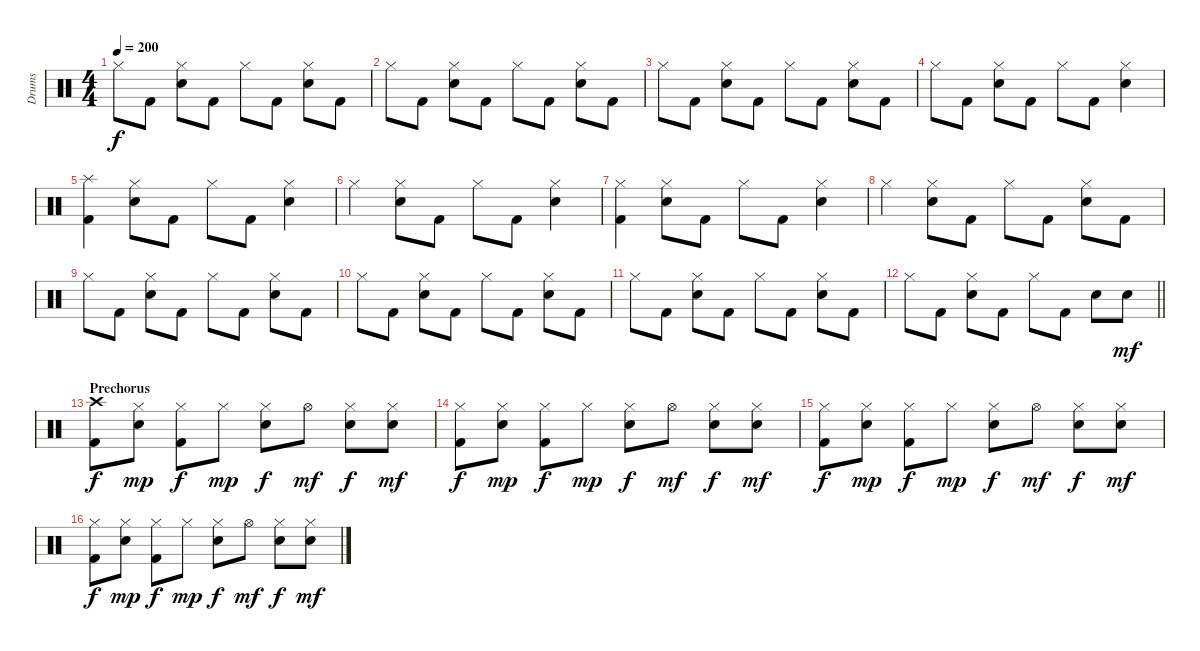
\track ("Drums" "Drums") {instrument percussion}
\staff {score}
\articulation defaults
\ts (4 4)
\tempo 200
\clef neutral
\ks c "Hi-Hat (closed)".8{dy f} "Kick (hit) 2".8
("Hi-Hat (closed)" "Electric Snare (hit)").8 "Kick (hit) 2".8 "Hi-Hat (closed)".8 "Kick (hit) 2".8 ("Hi-Hat (closed)" "Electric Snare (hit)").8 "Kick (hit) 2".8 |
"Hi-Hat (closed)".8 "Kick (hit) 2".8 ("Hi-Hat (closed)" "Electric Snare (hit)").8 "Kick (hit) 2".8 "Hi-Hat (closed)".8 "Kick (hit) 2".8 ("Hi-Hat (closed)" "Electric Snare (hit)").8 "Kick (hit) 2".8 |
"Hi-Hat (closed)".8 "Kick (hit) 2".8 ("Hi-Hat (closed)" "Electric Snare (hit)").8 "Kick (hit) 2".8 "Hi-Hat (closed)".8 "Kick (hit) 2".8 ("Hi-Hat (closed)" "Electric Snare (hit)").8 "Kick (hit) 2".8 |
"Hi-Hat (closed)".8 "Kick (hit) 2".8 ("Hi-Hat (closed)" "Electric Snare (hit)").8 "Kick (hit) 2".8 "Hi-Hat (closed)".8 "Kick (hit) 2".8 ("Hi-Hat (closed)" "Electric Snare (hit)").4 |
("Kick (hit) 2" "Splash (hit)").4 ("Hi-Hat (closed)" "Electric Snare (hit)").8 "Kick (hit) 2".8 "Hi-Hat (closed)".8 "Kick (hit) 2".8 ("Hi-Hat (closed)" "Electric Snare (hit)").4 |
"Hi-Hat (closed)".4 ("Hi-Hat (closed)" "Electric Snare (hit)").8 "Kick (hit) 2".8 "Hi-Hat (closed)".8 "Kick (hit) 2".8 ("Hi-Hat (closed)" "Electric Snare (hit)").4 |
("Kick (hit) 2" "Hi-Hat (closed)").4 ("Hi-Hat (closed)" "Electric Snare (hit)").8 "Kick (hit) 2".8 "Hi-Hat (closed)".8 "Kick (hit) 2".8 ("Hi-Hat (closed)" "Electric Snare (hit)").4 |
"Hi-Hat (closed)".4 ("Hi-Hat (closed)" "Electric Snare (hit)").8 "Kick (hit) 2".8 "Hi-Hat (closed)".8 "Kick (hit) 2".8 ("Hi-Hat (closed)" "Electric Snare (hit)").8 "Kick (hit) 2".8 |
"Hi-Hat (closed)".8 "Kick (hit) 2".8 ("Hi-Hat (closed)" "Electric Snare (hit)").8 "Kick (hit) 2".8 "Hi-Hat (closed)".8 "Kick (hit) 2".8 ("Hi-Hat (closed)" "Electric Snare (hit)").8 "Kick (hit) 2".8 |
"Hi-Hat (closed)".8 "Kick (hit) 2".8 ("Hi-Hat (closed)" "Electric Snare (hit)").8 "Kick (hit) 2".8 "Hi-Hat (closed)".8 "Kick (hit) 2".8 ("Hi-Hat (closed)" "Electric Snare (hit)").8 "Kick (hit) 2".8 |
"Hi-Hat (closed)".8 "Kick (hit) 2".8 ("Hi-Hat (closed)" "Electric Snare (hit)").8 "Kick (hit) 2".8 "Hi-Hat (closed)".8 "Kick (hit) 2".8 ("Hi-Hat (closed)" "Electric Snare (hit)").8 "Kick (hit) 2".8 |
\barLineRight lightlight "Hi-Hat (closed)".8 "Kick (hit) 2".8
("Hi-Hat (closed)" "Electric Snare (hit)").8 "Kick (hit) 2".8 "Hi-Hat (closed)".8 "Kick (hit) 2".8 "Electric Snare (hit)".8 "Electric Snare (hit)".8{dy mf} |
\section ("" "Prechorus")
("Kick (hit) 2" "Crash high (hit)").8{dy f} ("Hi-Hat (closed)" "Electric Snare (hit)").8{dy mp} ("Kick (hit) 2" "Hi-Hat (closed)").8{dy f} "Hi-Hat (closed)".8{dy mp} ("Hi-Hat (closed)" "Electric Snare (hit)").8{dy f} "Hi-Hat (open)".8{dy mf} ("Hi-Hat (closed)" "Electric Snare (hit)").8{dy f} ("Hi-Hat (closed)" "Electric Snare (hit)").8{dy mf} |
("Kick (hit) 2" "Hi-Hat (closed)").8{dy f} ("Hi-Hat (closed)" "Electric Snare (hit)").8{dy mp} ("Kick (hit) 2" "Hi-Hat (closed)").8{dy f} "Hi-Hat (closed)".8{dy mp} ("Hi-Hat (closed)" "Electric Snare (hit)").8{dy f} "Hi-Hat (open)".8{dy mf} ("Hi-Hat (closed)" "Electric Snare (hit)").8{dy f} ("Hi-Hat (closed)" "Electric Snare (hit)").8{dy mf} |
("Kick (hit) 2" "Hi-Hat (closed)").8{dy f} ("Hi-Hat (closed)" "Electric Snare (hit)").8{dy mp} ("Kick (hit) 2" "Hi-Hat (closed)").8{dy f} "Hi-Hat (closed)".8{dy mp} ("Hi-Hat (closed)" "Electric Snare (hit)").8{dy f} "Hi-Hat (open)".8{dy mf} ("Hi-Hat (closed)" "Electric Snare (hit)").8{dy f} ("Hi-Hat (closed)" "Electric Snare (hit)").8{dy mf} |
("Kick (hit) 2" "Hi-Hat (closed)").8{dy f} ("Hi-Hat (closed)" "Electric Snare (hit)").8{dy mp} ("Kick (hit) 2" "Hi-Hat (closed)").8{dy f} "Hi-Hat (closed)".8{dy mp} ("Hi-Hat (closed)" "Electric Snare (hit)").8{dy f} "Hi-Hat (open)".8{dy mf} ("Hi-Hat (closed)" "Electric Snare (hit)").8{dy f} ("Hi-Hat (closed)" "Electric Snare (hit)").8{dy mf}
